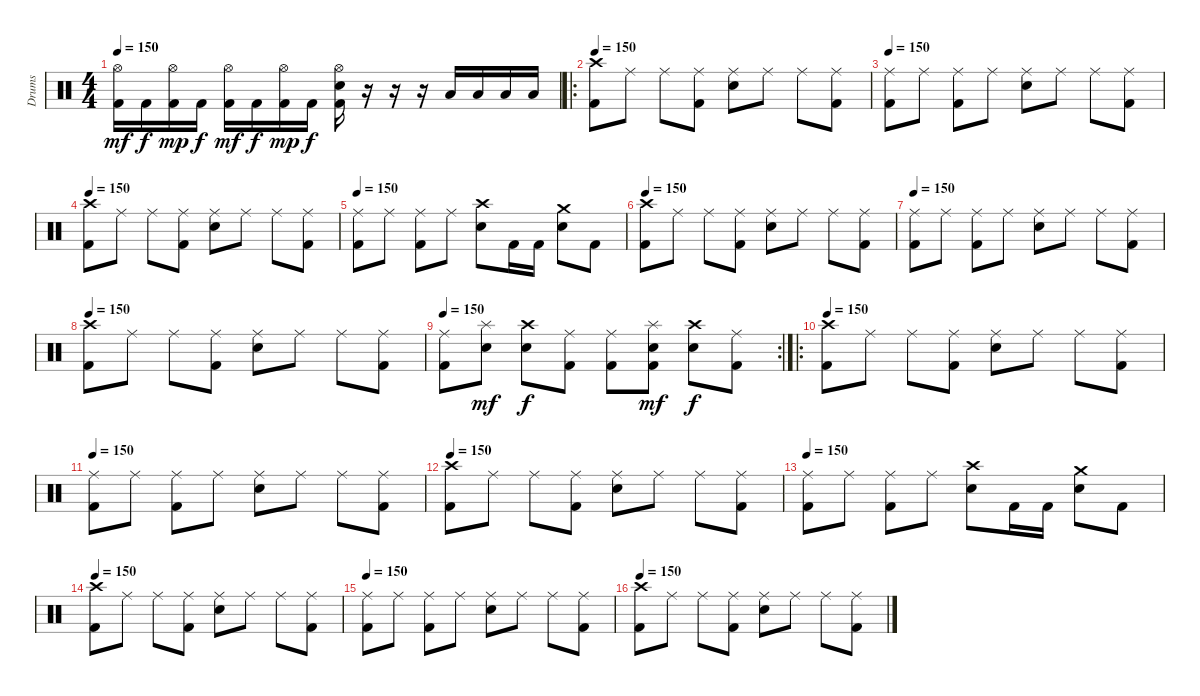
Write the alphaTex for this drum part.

\track ("Drums" "Drums") {instrument percussion}
\staff {score}
\articulation defaults
\ts (4 4)
\tempo 150
\clef neutral
\ks c
("Hi-Hat (open)" "Kick (hit) 2").16{dy mf} "Kick (hit) 2".16{dy f} ("Hi-Hat (open)" "Kick (hit) 2").16{dy mp} "Kick (hit) 2".16{dy f} ("Hi-Hat (open)" "Kick (hit) 2").16{dy mf} "Kick (hit) 2".16{dy f} ("Hi-Hat (open)" "Kick (hit) 2").16{dy mp} "Kick (hit) 2".16{dy f} ("Hi-Hat (open)" "Electric Snare (hit)" "Kick (hit) 2").16 r.16 r.16 r.16 "Low Tom (hit)".16 "Low Tom (hit)".16 "Low Tom (hit)".16 "Low Tom (hit)".16 |
\ro
\tempo 150
("Crash high (hit)" "Kick (hit) 2").8 "Ride (middle)".8 "Ride (middle)".8 ("Ride (middle)" "Kick (hit) 2").8 ("Ride (middle)" "Electric Snare (hit)").8 "Ride (middle)".8 "Ride (middle)".8 ("Ride (middle)" "Kick (hit) 2").8 |
\tempo 150
("Ride (middle)" "Kick (hit) 2").8 "Ride (middle)".8 ("Ride (middle)" "Kick (hit) 2").8 "Ride (middle)".8 ("Ride (middle)" "Electric Snare (hit)").8 "Ride (middle)".8 "Ride (middle)".8 ("Ride (middle)" "Kick (hit) 2").8 |
\tempo 150
("Crash high (hit)" "Kick (hit) 2").8 "Ride (middle)".8 "Ride (middle)".8 ("Ride (middle)" "Kick (hit) 2").8 ("Ride (middle)" "Electric Snare (hit)").8 "Ride (middle)".8 "Ride (middle)".8 ("Ride (middle)" "Kick (hit) 2").8 |
\tempo 150
("Ride (middle)" "Kick (hit) 2").8 "Ride (middle)".8 ("Ride (middle)" "Kick (hit) 2").8 "Ride (middle)".8 ("Crash high (hit)" "Electric Snare (hit)").8 "Kick (hit) 2".16 "Kick (hit) 2".16 ("Crash medium (hit)" "Electric Snare (hit)").8 "Kick (hit) 2".8 |
\tempo 150
("Crash high (hit)" "Kick (hit) 2").8 "Ride (middle)".8 "Ride (middle)".8 ("Ride (middle)" "Kick (hit) 2").8 ("Ride (middle)" "Electric Snare (hit)").8 "Ride (middle)".8 "Ride (middle)".8 ("Ride (middle)" "Kick (hit) 2").8 |
\tempo 150
("Ride (middle)" "Kick (hit) 2").8 "Ride (middle)".8 ("Ride (middle)" "Kick (hit) 2").8 "Ride (middle)".8 ("Ride (middle)" "Electric Snare (hit)").8 "Ride (middle)".8 "Ride (middle)".8 ("Ride (middle)" "Kick (hit) 2").8 |
\tempo 150
("Crash high (hit)" "Kick (hit) 2").8 "Ride (middle)".8 "Ride (middle)".8 ("Ride (middle)" "Kick (hit) 2").8 ("Ride (middle)" "Electric Snare (hit)").8 "Ride (middle)".8 "Ride (middle)".8 ("Ride (middle)" "Kick (hit) 2").8 |
\rc 2
\tempo 150
("Ride (middle)" "Kick (hit) 2").8 ("Splash (hit)" "Electric Snare (hit)").8{dy mf} ("Crash high (hit)" "Electric Snare (hit)").8{dy f} ("Ride (middle)" "Kick (hit) 2").8 ("Ride (middle)" "Kick (hit) 2").8 ("Splash (hit)" "Electric Snare (hit)" "Kick (hit) 2").8{dy mf} ("Crash high (hit)" "Electric Snare (hit)").8{dy f} ("Ride (middle)" "Kick (hit) 2").8 |
\ro
\tempo 150
("Crash high (hit)" "Kick (hit) 2").8 "Ride (middle)".8 "Ride (middle)".8 ("Ride (middle)" "Kick (hit) 2").8 ("Ride (middle)" "Electric Snare (hit)").8 "Ride (middle)".8 "Ride (middle)".8 ("Ride (middle)" "Kick (hit) 2").8 |
\tempo 150
("Ride (middle)" "Kick (hit) 2").8 "Ride (middle)".8 ("Ride (middle)" "Kick (hit) 2").8 "Ride (middle)".8 ("Ride (middle)" "Electric Snare (hit)").8 "Ride (middle)".8 "Ride (middle)".8 ("Ride (middle)" "Kick (hit) 2").8 |
\tempo 150
("Crash high (hit)" "Kick (hit) 2").8 "Ride (middle)".8 "Ride (middle)".8 ("Ride (middle)" "Kick (hit) 2").8 ("Ride (middle)" "Electric Snare (hit)").8 "Ride (middle)".8 "Ride (middle)".8 ("Ride (middle)" "Kick (hit) 2").8 |
\tempo 150
("Ride (middle)" "Kick (hit) 2").8 "Ride (middle)".8 ("Ride (middle)" "Kick (hit) 2").8 "Ride (middle)".8 ("Crash high (hit)" "Electric Snare (hit)").8 "Kick (hit) 2".16 "Kick (hit) 2".16 ("Crash medium (hit)" "Electric Snare (hit)").8 "Kick (hit) 2".8 |
\tempo 150
("Crash high (hit)" "Kick (hit) 2").8 "Ride (middle)".8 "Ride (middle)".8 ("Ride (middle)" "Kick (hit) 2").8 ("Ride (middle)" "Electric Snare (hit)").8 "Ride (middle)".8 "Ride (middle)".8 ("Ride (middle)" "Kick (hit) 2").8 |
\tempo 150
("Ride (middle)" "Kick (hit) 2").8 "Ride (middle)".8 ("Ride (middle)" "Kick (hit) 2").8 "Ride (middle)".8 ("Ride (middle)" "Electric Snare (hit)").8 "Ride (middle)".8 "Ride (middle)".8 ("Ride (middle)" "Kick (hit) 2").8 |
\tempo 150
("Crash high (hit)" "Kick (hit) 2").8 "Ride (middle)".8 "Ride (middle)".8 ("Ride (middle)" "Kick (hit) 2").8 ("Ride (middle)" "Electric Snare (hit)").8 "Ride (middle)".8 "Ride (middle)".8 ("Ride (middle)" "Kick (hit) 2").8
